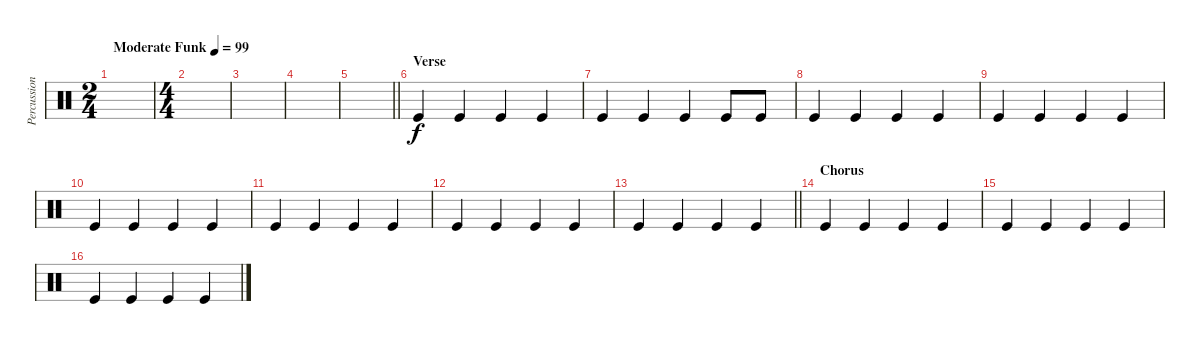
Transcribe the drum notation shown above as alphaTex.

\track ("Percussion" "Percussion") {instrument percussion}
\staff {score}
\articulation defaults
\ts (2 4)
\tempo (99 "Moderate Funk")
\clef neutral
\ks c
|
\ts (4 4)
|
|
|
\barLineRight lightlight
|
\section ("" "Verse")
"Kick (hit)".4 "Kick (hit)".4 "Kick (hit)".4 "Kick (hit)".4 |
"Kick (hit)".4 "Kick (hit)".4 "Kick (hit)".4 "Kick (hit)".8 "Kick (hit)".8 |
"Kick (hit)".4 "Kick (hit)".4 "Kick (hit)".4 "Kick (hit)".4 |
"Kick (hit)".4 "Kick (hit)".4 "Kick (hit)".4 "Kick (hit)".4 |
"Kick (hit)".4 "Kick (hit)".4 "Kick (hit)".4 "Kick (hit)".4 |
"Kick (hit)".4 "Kick (hit)".4 "Kick (hit)".4 "Kick (hit)".4 |
"Kick (hit)".4 "Kick (hit)".4 "Kick (hit)".4 "Kick (hit)".4 |
\barLineRight lightlight "Kick (hit)".4 "Kick (hit)".4 "Kick (hit)".4 "Kick (hit)".4
|
\section ("" "Chorus")
"Kick (hit)".4 "Kick (hit)".4 "Kick (hit)".4 "Kick (hit)".4 |
"Kick (hit)".4 "Kick (hit)".4 "Kick (hit)".4 "Kick (hit)".4 |
"Kick (hit)".4 "Kick (hit)".4 "Kick (hit)".4 "Kick (hit)".4
